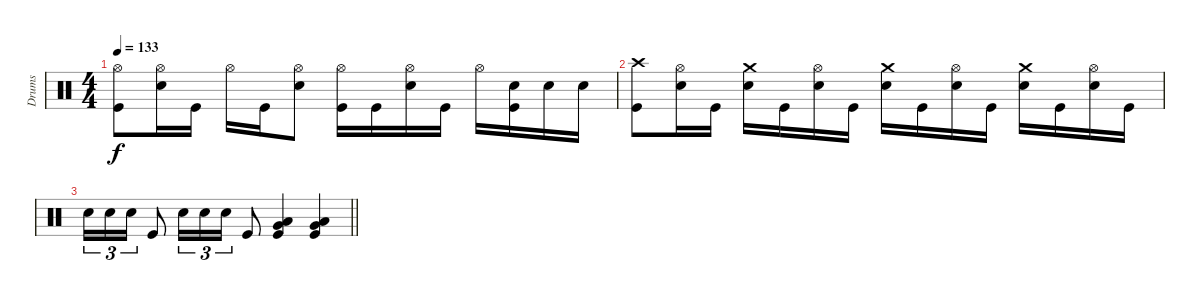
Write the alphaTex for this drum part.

\track ("Drums" "Drums") {instrument percussion}
\staff
\articulation defaults
\ts (4 4)
\tempo 133
\clef neutral
\ks c
("Hi-Hat (open)" "Kick (hit)").8{dy f} ("Hi-Hat (open)" "Electric Snare (hit)").16 "Kick (hit)".16 "Hi-Hat (open)".16 "Kick (hit)".16 ("Hi-Hat (open)" "Electric Snare (hit)").8 ("Hi-Hat (open)" "Kick (hit)").16 "Kick (hit)".16 ("Hi-Hat (open)" "Electric Snare (hit)").16 "Kick (hit)".16 "Hi-Hat (open)".16 ("Electric Snare (hit)" "Kick (hit)").16 "Electric Snare (hit)".16 "Electric Snare (hit)".16 |
("Crash high (hit)" "Kick (hit)").8 ("Hi-Hat (open)" "Electric Snare (hit)").16 "Kick (hit)".16 ("Crash medium (hit)" "Electric Snare (hit)").16 "Kick (hit)".16 ("Hi-Hat (open)" "Electric Snare (hit)").16 "Kick (hit)".16 ("Crash medium (hit)" "Electric Snare (hit)").16 "Kick (hit)".16 ("Hi-Hat (open)" "Electric Snare (hit)").16 "Kick (hit)".16 ("Crash medium (hit)" "Electric Snare (hit)").16 "Kick (hit)".16 ("Hi-Hat (open)" "Electric Snare (hit)").16 "Kick (hit)".16 |
\barLineRight lightlight "Electric Snare (hit)".16{tu (3 2)} "Electric Snare (hit)".16{tu (3 2)} "Electric Snare (hit)".16{tu (3 2)} "Kick (hit)".8 "Electric Snare (hit)".16{tu (3 2)} "Electric Snare (hit)".16{tu (3 2)} "Electric Snare (hit)".16{tu (3 2)} "Kick (hit)".8
("Very Low Tom (hit)" "Low Floor Tom (hit)" "Kick (hit)").4 ("Very Low Tom (hit)" "Low Floor Tom (hit)" "Kick (hit)").4
